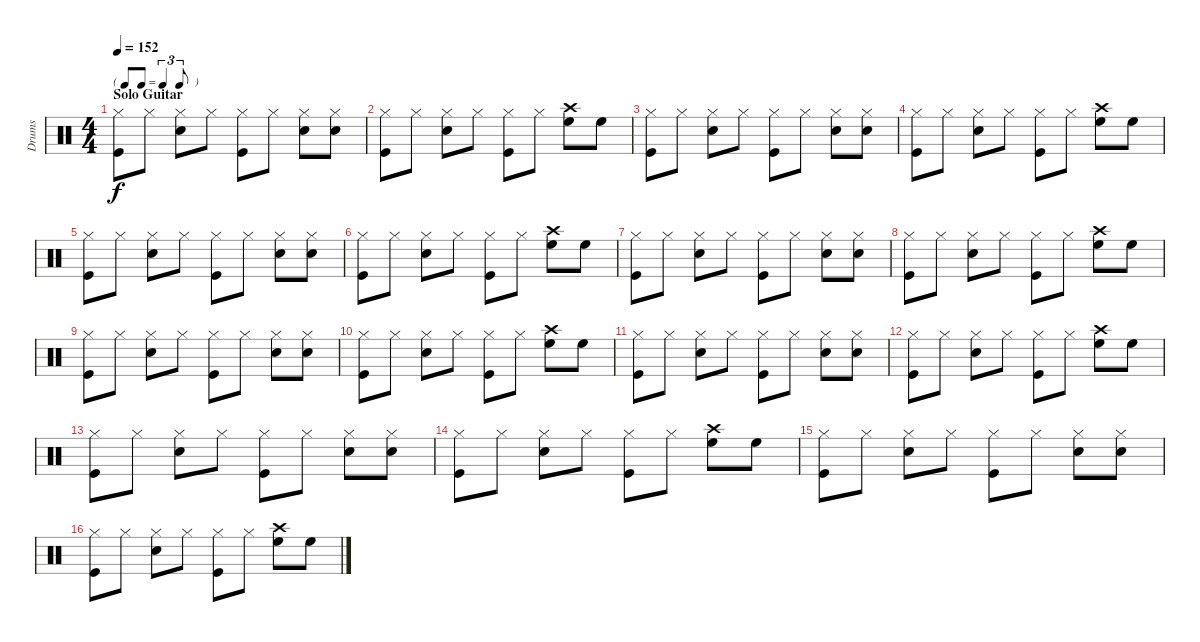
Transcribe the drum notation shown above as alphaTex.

\track ("Drums" "Drums") {instrument percussion}
\staff {score}
\articulation defaults
\ts (4 4)
\tf triplet8th
\section ("" "Solo Guitar")
\tempo 152
\clef neutral
\ks c
("Hi-Hat (closed)" "Kick (hit)").8{dy f} "Hi-Hat (closed)".8 ("Hi-Hat (closed)" "Snare (hit) 2").8 "Hi-Hat (closed)".8 ("Hi-Hat (closed)" "Kick (hit)").8 "Hi-Hat (closed)".8 ("Hi-Hat (closed)" "Snare (hit) 2").8 ("Hi-Hat (closed)" "Snare (hit) 2").8 |
("Hi-Hat (closed)" "Kick (hit)").8 "Hi-Hat (closed)".8 ("Hi-Hat (closed)" "Snare (hit) 2").8 "Hi-Hat (closed)".8 ("Hi-Hat (closed)" "Kick (hit)").8 "Hi-Hat (closed)".8 ("Crash high (hit)" "High Floor Tom (hit)").8 "High Floor Tom (hit)".8 |
("Hi-Hat (closed)" "Kick (hit)").8 "Hi-Hat (closed)".8 ("Hi-Hat (closed)" "Snare (hit) 2").8 "Hi-Hat (closed)".8 ("Hi-Hat (closed)" "Kick (hit)").8 "Hi-Hat (closed)".8 ("Hi-Hat (closed)" "Snare (hit) 2").8 ("Hi-Hat (closed)" "Snare (hit) 2").8 |
("Hi-Hat (closed)" "Kick (hit)").8 "Hi-Hat (closed)".8 ("Hi-Hat (closed)" "Snare (hit) 2").8 "Hi-Hat (closed)".8 ("Hi-Hat (closed)" "Kick (hit)").8 "Hi-Hat (closed)".8 ("Crash high (hit)" "High Floor Tom (hit)").8 "High Floor Tom (hit)".8 |
("Hi-Hat (closed)" "Kick (hit)").8 "Hi-Hat (closed)".8 ("Hi-Hat (closed)" "Snare (hit) 2").8 "Hi-Hat (closed)".8 ("Hi-Hat (closed)" "Kick (hit)").8 "Hi-Hat (closed)".8 ("Hi-Hat (closed)" "Snare (hit) 2").8 ("Hi-Hat (closed)" "Snare (hit) 2").8 |
("Hi-Hat (closed)" "Kick (hit)").8 "Hi-Hat (closed)".8 ("Hi-Hat (closed)" "Snare (hit) 2").8 "Hi-Hat (closed)".8 ("Hi-Hat (closed)" "Kick (hit)").8 "Hi-Hat (closed)".8 ("Crash high (hit)" "High Floor Tom (hit)").8 "High Floor Tom (hit)".8 |
("Hi-Hat (closed)" "Kick (hit)").8 "Hi-Hat (closed)".8 ("Hi-Hat (closed)" "Snare (hit) 2").8 "Hi-Hat (closed)".8 ("Hi-Hat (closed)" "Kick (hit)").8 "Hi-Hat (closed)".8 ("Hi-Hat (closed)" "Snare (hit) 2").8 ("Hi-Hat (closed)" "Snare (hit) 2").8 |
("Hi-Hat (closed)" "Kick (hit)").8 "Hi-Hat (closed)".8 ("Hi-Hat (closed)" "Snare (hit) 2").8 "Hi-Hat (closed)".8 ("Hi-Hat (closed)" "Kick (hit)").8 "Hi-Hat (closed)".8 ("Crash high (hit)" "High Floor Tom (hit)").8 "High Floor Tom (hit)".8 |
("Hi-Hat (closed)" "Kick (hit)").8 "Hi-Hat (closed)".8 ("Hi-Hat (closed)" "Snare (hit) 2").8 "Hi-Hat (closed)".8 ("Hi-Hat (closed)" "Kick (hit)").8 "Hi-Hat (closed)".8 ("Hi-Hat (closed)" "Snare (hit) 2").8 ("Hi-Hat (closed)" "Snare (hit) 2").8 |
("Hi-Hat (closed)" "Kick (hit)").8 "Hi-Hat (closed)".8 ("Hi-Hat (closed)" "Snare (hit) 2").8 "Hi-Hat (closed)".8 ("Hi-Hat (closed)" "Kick (hit)").8 "Hi-Hat (closed)".8 ("Crash high (hit)" "High Floor Tom (hit)").8 "High Floor Tom (hit)".8 |
("Hi-Hat (closed)" "Kick (hit)").8 "Hi-Hat (closed)".8 ("Hi-Hat (closed)" "Snare (hit) 2").8 "Hi-Hat (closed)".8 ("Hi-Hat (closed)" "Kick (hit)").8 "Hi-Hat (closed)".8 ("Hi-Hat (closed)" "Snare (hit) 2").8 ("Hi-Hat (closed)" "Snare (hit) 2").8 |
("Hi-Hat (closed)" "Kick (hit)").8 "Hi-Hat (closed)".8 ("Hi-Hat (closed)" "Snare (hit) 2").8 "Hi-Hat (closed)".8 ("Hi-Hat (closed)" "Kick (hit)").8 "Hi-Hat (closed)".8 ("Crash high (hit)" "High Floor Tom (hit)").8 "High Floor Tom (hit)".8 |
("Hi-Hat (closed)" "Kick (hit)").8 "Hi-Hat (closed)".8 ("Hi-Hat (closed)" "Snare (hit) 2").8 "Hi-Hat (closed)".8 ("Hi-Hat (closed)" "Kick (hit)").8 "Hi-Hat (closed)".8 ("Hi-Hat (closed)" "Snare (hit) 2").8 ("Hi-Hat (closed)" "Snare (hit) 2").8 |
("Hi-Hat (closed)" "Kick (hit)").8 "Hi-Hat (closed)".8 ("Hi-Hat (closed)" "Snare (hit) 2").8 "Hi-Hat (closed)".8 ("Hi-Hat (closed)" "Kick (hit)").8 "Hi-Hat (closed)".8 ("Crash high (hit)" "High Floor Tom (hit)").8 "High Floor Tom (hit)".8 |
("Hi-Hat (closed)" "Kick (hit)").8 "Hi-Hat (closed)".8 ("Hi-Hat (closed)" "Snare (hit) 2").8 "Hi-Hat (closed)".8 ("Hi-Hat (closed)" "Kick (hit)").8 "Hi-Hat (closed)".8 ("Hi-Hat (closed)" "Snare (hit) 2").8 ("Hi-Hat (closed)" "Snare (hit) 2").8 |
("Hi-Hat (closed)" "Kick (hit)").8 "Hi-Hat (closed)".8 ("Hi-Hat (closed)" "Snare (hit) 2").8 "Hi-Hat (closed)".8 ("Hi-Hat (closed)" "Kick (hit)").8 "Hi-Hat (closed)".8 ("Crash high (hit)" "High Floor Tom (hit)").8 "High Floor Tom (hit)".8
